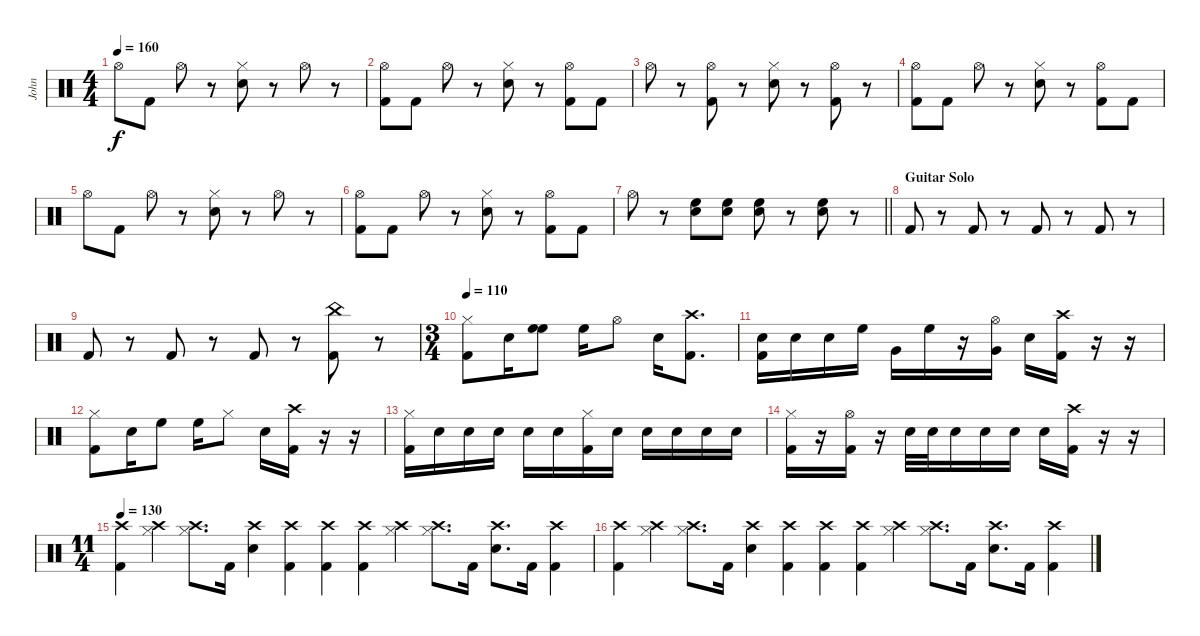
\track ("John" "John") {instrument percussion}
\staff {score}
\articulation defaults
\ts (4 4)
\tempo 160
\clef neutral
\ks c "Hi-Hat (open)".8{dy f} "Kick (hit) 2".8 "Hi-Hat (open)".8
r.8 ("Hi-Hat (closed)" "Snare (hit) 2").8 r.8 "Hi-Hat (open)".8 r.8 |
("Hi-Hat (open)" "Kick (hit) 2").8 "Kick (hit) 2".8 "Hi-Hat (open)".8 r.8 ("Hi-Hat (closed)" "Snare (hit) 2").8 r.8 ("Hi-Hat (open)" "Kick (hit) 2").8 "Kick (hit) 2".8 |
"Hi-Hat (open)".8 r.8 ("Hi-Hat (open)" "Kick (hit) 2").8 r.8 ("Hi-Hat (closed)" "Snare (hit) 2").8 r.8 ("Hi-Hat (open)" "Kick (hit) 2").8 r.8 |
("Hi-Hat (open)" "Kick (hit) 2").8 "Kick (hit) 2".8 "Hi-Hat (open)".8 r.8 ("Hi-Hat (closed)" "Snare (hit) 2").8 r.8 ("Hi-Hat (open)" "Kick (hit) 2").8 "Kick (hit) 2".8 |
"Hi-Hat (open)".8 "Kick (hit) 2".8 "Hi-Hat (open)".8 r.8 ("Hi-Hat (closed)" "Snare (hit) 2").8 r.8 "Hi-Hat (open)".8 r.8 |
("Hi-Hat (open)" "Kick (hit) 2").8 "Kick (hit) 2".8 "Hi-Hat (open)".8 r.8 ("Hi-Hat (closed)" "Snare (hit) 2").8 r.8 ("Hi-Hat (open)" "Kick (hit) 2").8 "Kick (hit) 2".8 |
\barLineRight lightlight "Hi-Hat (open)".8
r.8 ("High Floor Tom (hit)" "Snare (hit) 2").8 ("High Floor Tom (hit)" "Snare (hit) 2").8 ("High Floor Tom (hit)" "Snare (hit) 2").8 r.8 ("High Floor Tom (hit)" "Snare (hit) 2").8 r.8 |
\section ("" "Guitar Solo")
"Kick (hit) 2".8 r.8 "Kick (hit) 2".8 r.8 "Kick (hit) 2".8 r.8 "Kick (hit) 2".8 r.8 |
"Kick (hit) 2".8 r.8 "Kick (hit) 2".8 r.8 "Kick (hit) 2".8 r.8 ("China (hit)" "Kick (hit) 2").8 r.8 |
\ts (3 4)
\tempo 110
("Hi-Hat (closed)" "Kick (hit) 2").8 "Snare (hit) 2".16 ("High Floor Tom (hit)" "High Floor Tom (hit)").8 "High Floor Tom (hit)".16 "Hi-Hat (open)".8 "Snare (hit) 2".16 ("Crash high (hit)" "Kick (hit) 2").8{d} |
("Snare (hit) 2" "Kick (hit) 2").16 "Snare (hit) 2".16 "Snare (hit) 2".16 "High Floor Tom (hit)".16 "Very Low Tom (hit)".16 "High Floor Tom (hit)".16 r.16 ("Hi-Hat (open)" "Very Low Tom (hit)").16 "Snare (hit) 2".16 ("Crash high (hit)" "Kick (hit) 2").16 r.16 r.16 |
("Hi-Hat (closed)" "Kick (hit) 2").8 "Snare (hit) 2".16 "High Floor Tom (hit)".8 "High Floor Tom (hit)".16 "Hi-Hat (closed)".8 "Snare (hit) 2".16 ("Crash high (hit)" "Kick (hit) 2").16 r.16 r.16 |
("Hi-Hat (closed)" "Kick (hit) 2").16 "Snare (hit) 2".16 "Snare (hit) 2".16 "Snare (hit) 2".16 "Snare (hit) 2".16 "Snare (hit) 2".16 ("Hi-Hat (closed)" "Kick (hit) 2").16 "Snare (hit) 2".16 "Snare (hit) 2".16 "Snare (hit) 2".16 "Snare (hit) 2".16 "Snare (hit) 2".16 |
("Hi-Hat (closed)" "Kick (hit) 2").16 r.16 ("Hi-Hat (open)" "Kick (hit) 2").16 r.16 "Snare (hit) 2".32 "Snare (hit) 2".32 "Snare (hit) 2".16 "Snare (hit) 2".16 "Snare (hit) 2".16 "Snare (hit) 2".16 ("Crash high (hit)" "Kick (hit) 2").16 r.16 r.16 |
\ts (11 4)
\tempo 130
("Crash high (hit)" "Kick (hit) 2").4 ("Crash high (hit)" "Hi-Hat (closed)").4 ("Crash high (hit)" "Hi-Hat (closed)").8{d} "Kick (hit) 2".16 ("Crash high (hit)" "Snare (hit) 2").4 ("Crash high (hit)" "Kick (hit) 2").4 ("Crash high (hit)" "Kick (hit) 2").4 ("Crash high (hit)" "Kick (hit) 2").4 ("Crash high (hit)" "Hi-Hat (closed)").4 ("Crash high (hit)" "Hi-Hat (closed)").8{d} "Kick (hit) 2".16 ("Crash high (hit)" "Snare (hit) 2").8{d} "Kick (hit) 2".16 ("Crash high (hit)" "Kick (hit) 2").4 |
("Crash high (hit)" "Kick (hit) 2").4 ("Crash high (hit)" "Hi-Hat (closed)").4 ("Crash high (hit)" "Hi-Hat (closed)").8{d} "Kick (hit) 2".16 ("Crash high (hit)" "Snare (hit) 2").4 ("Crash high (hit)" "Kick (hit) 2").4 ("Crash high (hit)" "Kick (hit) 2").4 ("Crash high (hit)" "Kick (hit) 2").4 ("Crash high (hit)" "Hi-Hat (closed)").4 ("Crash high (hit)" "Hi-Hat (closed)").8{d} "Kick (hit) 2".16 ("Crash high (hit)" "Snare (hit) 2").8{d} "Kick (hit) 2".16 ("Crash high (hit)" "Kick (hit) 2").4
